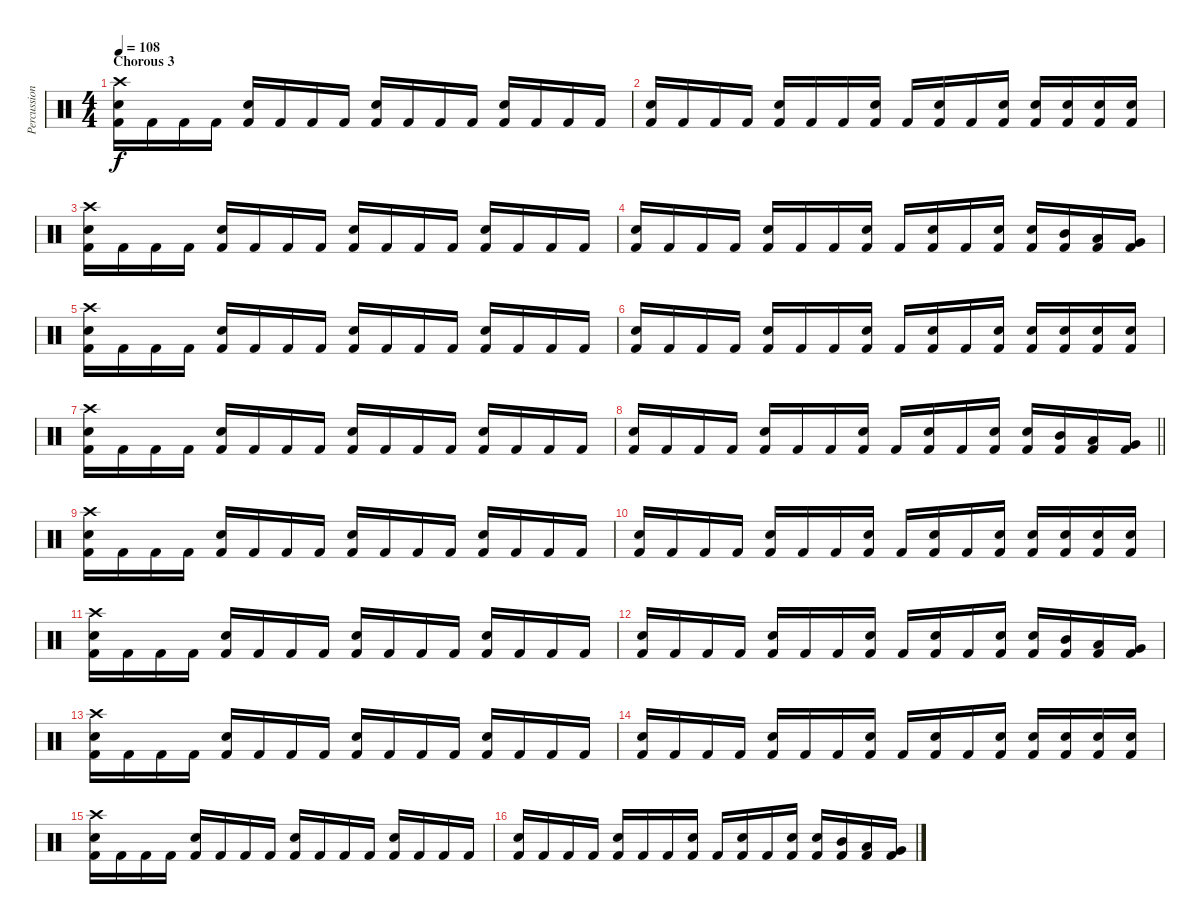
\track ("Percussion" "Percussion") {instrument percussion}
\staff {score}
\articulation defaults
\ts (4 4)
\section ("" "Chorous 3")
\tempo 108
\clef neutral
\ks c
("Crash high (hit)" "Electric Snare (hit)" "Kick (hit) 2").16{dy f} "Kick (hit) 2".16 "Kick (hit) 2".16 "Kick (hit) 2".16 ("Electric Snare (hit)" "Kick (hit) 2").16 "Kick (hit) 2".16 "Kick (hit) 2".16 "Kick (hit) 2".16 ("Electric Snare (hit)" "Kick (hit) 2").16 "Kick (hit) 2".16 "Kick (hit) 2".16 "Kick (hit) 2".16 ("Electric Snare (hit)" "Kick (hit) 2").16 "Kick (hit) 2".16 "Kick (hit) 2".16 "Kick (hit) 2".16 |
("Electric Snare (hit)" "Kick (hit) 2").16 "Kick (hit) 2".16 "Kick (hit) 2".16 "Kick (hit) 2".16 ("Electric Snare (hit)" "Kick (hit) 2").16 "Kick (hit) 2".16 "Kick (hit) 2".16 ("Electric Snare (hit)" "Kick (hit) 2").16 "Kick (hit) 2".16 ("Electric Snare (hit)" "Kick (hit) 2").16 "Kick (hit) 2".16 ("Electric Snare (hit)" "Kick (hit) 2").16 ("Electric Snare (hit)" "Kick (hit) 2").16 ("Electric Snare (hit)" "Kick (hit) 2").16 ("Electric Snare (hit)" "Kick (hit) 2").16 ("Electric Snare (hit)" "Kick (hit) 2").16 |
("Crash high (hit)" "Electric Snare (hit)" "Kick (hit) 2").16 "Kick (hit) 2".16 "Kick (hit) 2".16 "Kick (hit) 2".16 ("Electric Snare (hit)" "Kick (hit) 2").16 "Kick (hit) 2".16 "Kick (hit) 2".16 "Kick (hit) 2".16 ("Electric Snare (hit)" "Kick (hit) 2").16 "Kick (hit) 2".16 "Kick (hit) 2".16 "Kick (hit) 2".16 ("Electric Snare (hit)" "Kick (hit) 2").16 "Kick (hit) 2".16 "Kick (hit) 2".16 "Kick (hit) 2".16 |
("Electric Snare (hit)" "Kick (hit) 2").16 "Kick (hit) 2".16 "Kick (hit) 2".16 "Kick (hit) 2".16 ("Electric Snare (hit)" "Kick (hit) 2").16 "Kick (hit) 2".16 "Kick (hit) 2".16 ("Electric Snare (hit)" "Kick (hit) 2").16 "Kick (hit) 2".16 ("Electric Snare (hit)" "Kick (hit) 2").16 "Kick (hit) 2".16 ("Electric Snare (hit)" "Kick (hit) 2").16 ("Electric Snare (hit)" "Kick (hit) 2").16 ("Kick (hit) 2" "Mid Tom (hit)").16 ("Kick (hit) 2" "Low Tom (hit)").16 ("Kick (hit) 2" "Very Low Tom (hit)").16 |
("Crash high (hit)" "Electric Snare (hit)" "Kick (hit) 2").16 "Kick (hit) 2".16 "Kick (hit) 2".16 "Kick (hit) 2".16 ("Electric Snare (hit)" "Kick (hit) 2").16 "Kick (hit) 2".16 "Kick (hit) 2".16 "Kick (hit) 2".16 ("Electric Snare (hit)" "Kick (hit) 2").16 "Kick (hit) 2".16 "Kick (hit) 2".16 "Kick (hit) 2".16 ("Electric Snare (hit)" "Kick (hit) 2").16 "Kick (hit) 2".16 "Kick (hit) 2".16 "Kick (hit) 2".16 |
("Electric Snare (hit)" "Kick (hit) 2").16 "Kick (hit) 2".16 "Kick (hit) 2".16 "Kick (hit) 2".16 ("Electric Snare (hit)" "Kick (hit) 2").16 "Kick (hit) 2".16 "Kick (hit) 2".16 ("Electric Snare (hit)" "Kick (hit) 2").16 "Kick (hit) 2".16 ("Electric Snare (hit)" "Kick (hit) 2").16 "Kick (hit) 2".16 ("Electric Snare (hit)" "Kick (hit) 2").16 ("Electric Snare (hit)" "Kick (hit) 2").16 ("Electric Snare (hit)" "Kick (hit) 2").16 ("Electric Snare (hit)" "Kick (hit) 2").16 ("Electric Snare (hit)" "Kick (hit) 2").16 |
("Crash high (hit)" "Electric Snare (hit)" "Kick (hit) 2").16 "Kick (hit) 2".16 "Kick (hit) 2".16 "Kick (hit) 2".16 ("Electric Snare (hit)" "Kick (hit) 2").16 "Kick (hit) 2".16 "Kick (hit) 2".16 "Kick (hit) 2".16 ("Electric Snare (hit)" "Kick (hit) 2").16 "Kick (hit) 2".16 "Kick (hit) 2".16 "Kick (hit) 2".16 ("Electric Snare (hit)" "Kick (hit) 2").16 "Kick (hit) 2".16 "Kick (hit) 2".16 "Kick (hit) 2".16 |
\barLineRight lightlight
("Electric Snare (hit)" "Kick (hit) 2").16 "Kick (hit) 2".16 "Kick (hit) 2".16 "Kick (hit) 2".16 ("Electric Snare (hit)" "Kick (hit) 2").16 "Kick (hit) 2".16 "Kick (hit) 2".16 ("Electric Snare (hit)" "Kick (hit) 2").16 "Kick (hit) 2".16 ("Electric Snare (hit)" "Kick (hit) 2").16 "Kick (hit) 2".16 ("Electric Snare (hit)" "Kick (hit) 2").16 ("Electric Snare (hit)" "Kick (hit) 2").16 ("Kick (hit) 2" "Mid Tom (hit)").16 ("Kick (hit) 2" "Low Tom (hit)").16 ("Kick (hit) 2" "Very Low Tom (hit)").16 |
\section ("" "")
("Crash high (hit)" "Electric Snare (hit)" "Kick (hit) 2").16 "Kick (hit) 2".16 "Kick (hit) 2".16 "Kick (hit) 2".16 ("Electric Snare (hit)" "Kick (hit) 2").16 "Kick (hit) 2".16 "Kick (hit) 2".16 "Kick (hit) 2".16 ("Electric Snare (hit)" "Kick (hit) 2").16 "Kick (hit) 2".16 "Kick (hit) 2".16 "Kick (hit) 2".16 ("Electric Snare (hit)" "Kick (hit) 2").16 "Kick (hit) 2".16 "Kick (hit) 2".16 "Kick (hit) 2".16 |
("Electric Snare (hit)" "Kick (hit) 2").16 "Kick (hit) 2".16 "Kick (hit) 2".16 "Kick (hit) 2".16 ("Electric Snare (hit)" "Kick (hit) 2").16 "Kick (hit) 2".16 "Kick (hit) 2".16 ("Electric Snare (hit)" "Kick (hit) 2").16 "Kick (hit) 2".16 ("Electric Snare (hit)" "Kick (hit) 2").16 "Kick (hit) 2".16 ("Electric Snare (hit)" "Kick (hit) 2").16 ("Electric Snare (hit)" "Kick (hit) 2").16 ("Electric Snare (hit)" "Kick (hit) 2").16 ("Electric Snare (hit)" "Kick (hit) 2").16 ("Electric Snare (hit)" "Kick (hit) 2").16 |
("Crash high (hit)" "Electric Snare (hit)" "Kick (hit) 2").16 "Kick (hit) 2".16 "Kick (hit) 2".16 "Kick (hit) 2".16 ("Electric Snare (hit)" "Kick (hit) 2").16 "Kick (hit) 2".16 "Kick (hit) 2".16 "Kick (hit) 2".16 ("Electric Snare (hit)" "Kick (hit) 2").16 "Kick (hit) 2".16 "Kick (hit) 2".16 "Kick (hit) 2".16 ("Electric Snare (hit)" "Kick (hit) 2").16 "Kick (hit) 2".16 "Kick (hit) 2".16 "Kick (hit) 2".16 |
("Electric Snare (hit)" "Kick (hit) 2").16 "Kick (hit) 2".16 "Kick (hit) 2".16 "Kick (hit) 2".16 ("Electric Snare (hit)" "Kick (hit) 2").16 "Kick (hit) 2".16 "Kick (hit) 2".16 ("Electric Snare (hit)" "Kick (hit) 2").16 "Kick (hit) 2".16 ("Electric Snare (hit)" "Kick (hit) 2").16 "Kick (hit) 2".16 ("Electric Snare (hit)" "Kick (hit) 2").16 ("Electric Snare (hit)" "Kick (hit) 2").16 ("Kick (hit) 2" "Mid Tom (hit)").16 ("Kick (hit) 2" "Low Tom (hit)").16 ("Kick (hit) 2" "Very Low Tom (hit)").16 |
("Crash high (hit)" "Electric Snare (hit)" "Kick (hit) 2").16 "Kick (hit) 2".16 "Kick (hit) 2".16 "Kick (hit) 2".16 ("Electric Snare (hit)" "Kick (hit) 2").16 "Kick (hit) 2".16 "Kick (hit) 2".16 "Kick (hit) 2".16 ("Electric Snare (hit)" "Kick (hit) 2").16 "Kick (hit) 2".16 "Kick (hit) 2".16 "Kick (hit) 2".16 ("Electric Snare (hit)" "Kick (hit) 2").16 "Kick (hit) 2".16 "Kick (hit) 2".16 "Kick (hit) 2".16 |
("Electric Snare (hit)" "Kick (hit) 2").16 "Kick (hit) 2".16 "Kick (hit) 2".16 "Kick (hit) 2".16 ("Electric Snare (hit)" "Kick (hit) 2").16 "Kick (hit) 2".16 "Kick (hit) 2".16 ("Electric Snare (hit)" "Kick (hit) 2").16 "Kick (hit) 2".16 ("Electric Snare (hit)" "Kick (hit) 2").16 "Kick (hit) 2".16 ("Electric Snare (hit)" "Kick (hit) 2").16 ("Electric Snare (hit)" "Kick (hit) 2").16 ("Electric Snare (hit)" "Kick (hit) 2").16 ("Electric Snare (hit)" "Kick (hit) 2").16 ("Electric Snare (hit)" "Kick (hit) 2").16 |
("Crash high (hit)" "Electric Snare (hit)" "Kick (hit) 2").16 "Kick (hit) 2".16 "Kick (hit) 2".16 "Kick (hit) 2".16 ("Electric Snare (hit)" "Kick (hit) 2").16 "Kick (hit) 2".16 "Kick (hit) 2".16 "Kick (hit) 2".16 ("Electric Snare (hit)" "Kick (hit) 2").16 "Kick (hit) 2".16 "Kick (hit) 2".16 "Kick (hit) 2".16 ("Electric Snare (hit)" "Kick (hit) 2").16 "Kick (hit) 2".16 "Kick (hit) 2".16 "Kick (hit) 2".16 |
("Electric Snare (hit)" "Kick (hit) 2").16 "Kick (hit) 2".16 "Kick (hit) 2".16 "Kick (hit) 2".16 ("Electric Snare (hit)" "Kick (hit) 2").16 "Kick (hit) 2".16 "Kick (hit) 2".16 ("Electric Snare (hit)" "Kick (hit) 2").16 "Kick (hit) 2".16 ("Electric Snare (hit)" "Kick (hit) 2").16 "Kick (hit) 2".16 ("Electric Snare (hit)" "Kick (hit) 2").16 ("Electric Snare (hit)" "Kick (hit) 2").16 ("Kick (hit) 2" "Mid Tom (hit)").16 ("Kick (hit) 2" "Low Tom (hit)").16 ("Kick (hit) 2" "Very Low Tom (hit)").16
